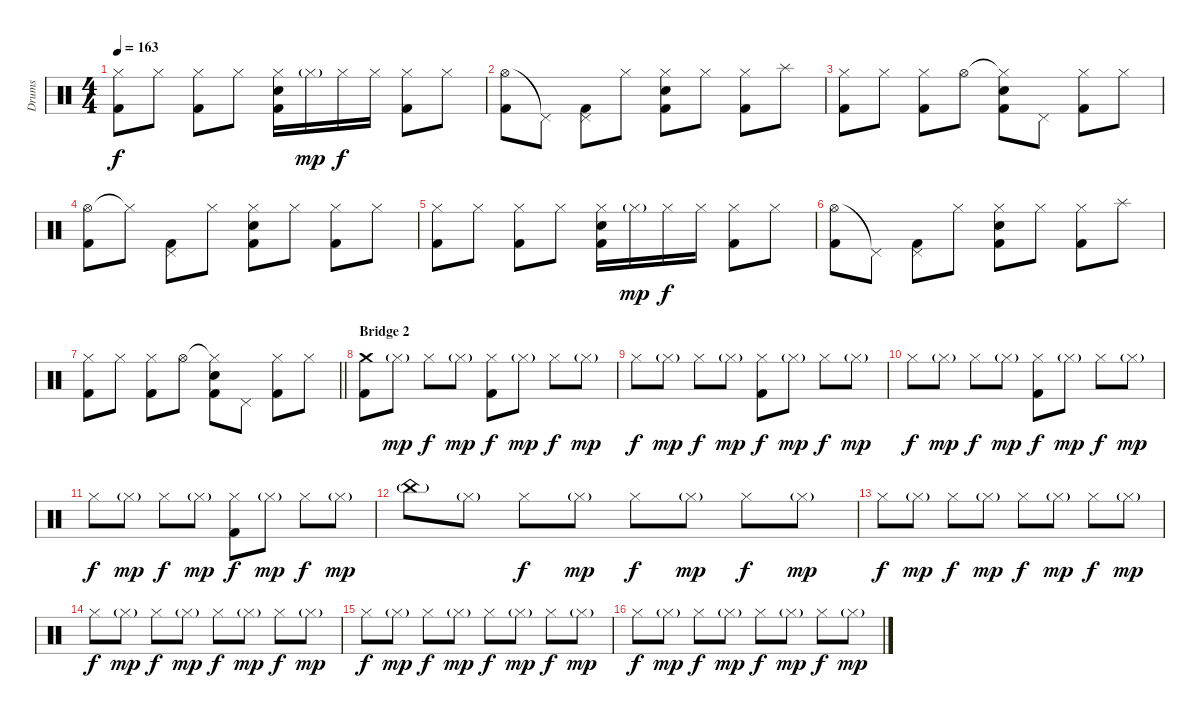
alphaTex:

\track ("Drums" "Drums") {instrument percussion}
\staff {score}
\articulation defaults
\ts (4 4)
\tempo 163
\clef neutral
\ks c
("Hi-Hat (closed)" "Kick (hit) 2").8{dy f} "Hi-Hat (closed)".8 ("Hi-Hat (closed)" "Kick (hit) 2").8 "Hi-Hat (closed)".8 ("Hi-Hat (closed)" "Electric Snare (hit)" "Kick (hit) 2").16 "Hi-Hat (closed)"{g}.16{dy mp} "Hi-Hat (closed)".16{dy f} "Hi-Hat (closed)".16 ("Hi-Hat (closed)" "Kick (hit) 2").8 "Hi-Hat (closed)".8 |
("Hi-Hat (open)" "Kick (hit) 2").8 "Pedal Hi-Hat (hit)"{t}.8 ("Pedal Hi-Hat (hit)" "Kick (hit) 2").8 "Hi-Hat (closed)".8 ("Hi-Hat (closed)" "Electric Snare (hit)" "Kick (hit) 2").8 "Hi-Hat (closed)".8 ("Hi-Hat (closed)" "Kick (hit) 2").8 "Splash (hit)".8 |
("Hi-Hat (closed)" "Kick (hit) 2").8 "Hi-Hat (closed)".8 ("Hi-Hat (closed)" "Kick (hit) 2").8 "Hi-Hat (open)".8 ("Hi-Hat (closed)"{t} "Electric Snare (hit)" "Kick (hit) 2").8 "Pedal Hi-Hat (hit)".8 ("Hi-Hat (closed)" "Kick (hit) 2").8 "Hi-Hat (closed)".8 |
("Hi-Hat (open)" "Kick (hit) 2").8 "Hi-Hat (closed)"{t}.8 ("Pedal Hi-Hat (hit)" "Kick (hit) 2").8 "Hi-Hat (closed)".8 ("Hi-Hat (closed)" "Electric Snare (hit)" "Kick (hit) 2").8 "Hi-Hat (closed)".8 ("Hi-Hat (closed)" "Kick (hit) 2").8 "Hi-Hat (closed)".8 |
("Hi-Hat (closed)" "Kick (hit) 2").8 "Hi-Hat (closed)".8 ("Hi-Hat (closed)" "Kick (hit) 2").8 "Hi-Hat (closed)".8 ("Hi-Hat (closed)" "Electric Snare (hit)" "Kick (hit) 2").16 "Hi-Hat (closed)"{g}.16{dy mp} "Hi-Hat (closed)".16{dy f} "Hi-Hat (closed)".16 ("Hi-Hat (closed)" "Kick (hit) 2").8 "Hi-Hat (closed)".8 |
("Hi-Hat (open)" "Kick (hit) 2").8 "Pedal Hi-Hat (hit)"{t}.8 ("Pedal Hi-Hat (hit)" "Kick (hit) 2").8 "Hi-Hat (closed)".8 ("Hi-Hat (closed)" "Electric Snare (hit)" "Kick (hit) 2").8 "Hi-Hat (closed)".8 ("Hi-Hat (closed)" "Kick (hit) 2").8 "Splash (hit)".8 |
\barLineRight lightlight
("Hi-Hat (closed)" "Kick (hit) 2").8 "Hi-Hat (closed)".8 ("Hi-Hat (closed)" "Kick (hit) 2").8 "Hi-Hat (open)".8 ("Hi-Hat (closed)"{t} "Electric Snare (hit)" "Kick (hit) 2").8 "Pedal Hi-Hat (hit)".8 ("Hi-Hat (closed)" "Kick (hit) 2").8 "Hi-Hat (closed)".8 |
\section ("" "Bridge 2")
("Crash medium (hit)" "Kick (hit) 2").8 "Hi-Hat (closed)"{g}.8{dy mp} "Hi-Hat (closed)".8{dy f} "Hi-Hat (closed)"{g}.8{dy mp} ("Hi-Hat (closed)" "Kick (hit) 2").8{dy f} "Hi-Hat (closed)"{g}.8{dy mp} "Hi-Hat (closed)".8{dy f} "Hi-Hat (closed)"{g}.8{dy mp} |
"Hi-Hat (closed)".8{dy f} "Hi-Hat (closed)"{g}.8{dy mp} "Hi-Hat (closed)".8{dy f} "Hi-Hat (closed)"{g}.8{dy mp} ("Hi-Hat (closed)" "Kick (hit) 2").8{dy f} "Hi-Hat (closed)"{g}.8{dy mp} "Hi-Hat (closed)".8{dy f} "Hi-Hat (closed)"{g}.8{dy mp} |
"Hi-Hat (closed)".8{dy f} "Hi-Hat (closed)"{g}.8{dy mp} "Hi-Hat (closed)".8{dy f} "Hi-Hat (closed)"{g}.8{dy mp} ("Hi-Hat (closed)" "Kick (hit) 2").8{dy f} "Hi-Hat (closed)"{g}.8{dy mp} "Hi-Hat (closed)".8{dy f} "Hi-Hat (closed)"{g}.8{dy mp} |
"Hi-Hat (closed)".8{dy f} "Hi-Hat (closed)"{g}.8{dy mp} "Hi-Hat (closed)".8{dy f} "Hi-Hat (closed)"{g}.8{dy mp} ("Hi-Hat (closed)" "Kick (hit) 2").8{dy f} "Hi-Hat (closed)"{g}.8{dy mp} "Hi-Hat (closed)".8{dy f} "Hi-Hat (closed)"{g}.8{dy mp} |
"China (hit)"{g}.8 "Hi-Hat (closed)"{g}.8 "Hi-Hat (closed)".8{dy f} "Hi-Hat (closed)"{g}.8{dy mp} "Hi-Hat (closed)".8{dy f} "Hi-Hat (closed)"{g}.8{dy mp} "Hi-Hat (closed)".8{dy f} "Hi-Hat (closed)"{g}.8{dy mp} |
"Hi-Hat (closed)".8{dy f} "Hi-Hat (closed)"{g}.8{dy mp} "Hi-Hat (closed)".8{dy f} "Hi-Hat (closed)"{g}.8{dy mp} "Hi-Hat (closed)".8{dy f} "Hi-Hat (closed)"{g}.8{dy mp} "Hi-Hat (closed)".8{dy f} "Hi-Hat (closed)"{g}.8{dy mp} |
"Hi-Hat (closed)".8{dy f} "Hi-Hat (closed)"{g}.8{dy mp} "Hi-Hat (closed)".8{dy f} "Hi-Hat (closed)"{g}.8{dy mp} "Hi-Hat (closed)".8{dy f} "Hi-Hat (closed)"{g}.8{dy mp} "Hi-Hat (closed)".8{dy f} "Hi-Hat (closed)"{g}.8{dy mp} |
"Hi-Hat (closed)".8{dy f} "Hi-Hat (closed)"{g}.8{dy mp} "Hi-Hat (closed)".8{dy f} "Hi-Hat (closed)"{g}.8{dy mp} "Hi-Hat (closed)".8{dy f} "Hi-Hat (closed)"{g}.8{dy mp} "Hi-Hat (closed)".8{dy f} "Hi-Hat (closed)"{g}.8{dy mp} |
"Hi-Hat (closed)".8{dy f} "Hi-Hat (closed)"{g}.8{dy mp} "Hi-Hat (closed)".8{dy f} "Hi-Hat (closed)"{g}.8{dy mp} "Hi-Hat (closed)".8{dy f} "Hi-Hat (closed)"{g}.8{dy mp} "Hi-Hat (closed)".8{dy f} "Hi-Hat (closed)"{g}.8{dy mp}
